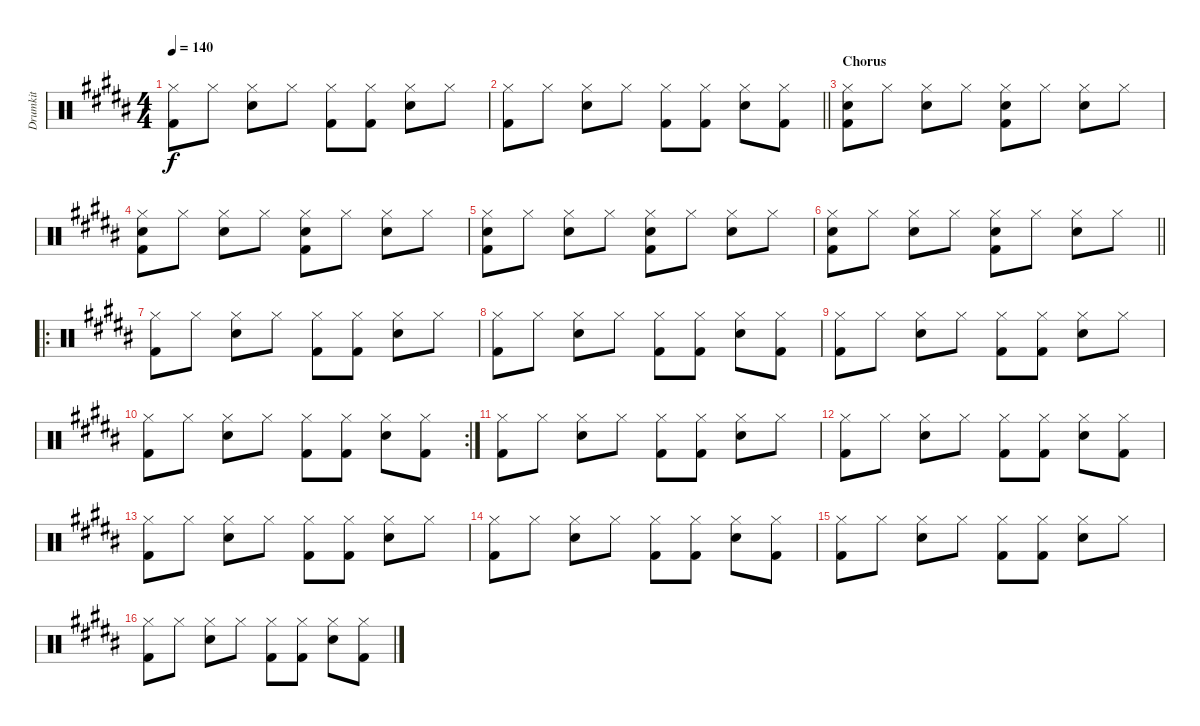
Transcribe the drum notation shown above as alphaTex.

\track ("Drumkit" "Drumkit") {instrument percussion}
\staff {score}
\articulation defaults
\ts (4 4)
\tempo 140
\clef neutral
\ks b
("Hi-Hat (closed)" "Kick (hit) 2").8{dy f} "Hi-Hat (closed)".8 ("Hi-Hat (closed)" "Snare (hit) 2").8 "Hi-Hat (closed)".8 ("Hi-Hat (closed)" "Kick (hit) 2").8 ("Hi-Hat (closed)" "Kick (hit) 2").8 ("Hi-Hat (closed)" "Snare (hit) 2").8 "Hi-Hat (closed)".8 |
\barLineRight lightlight
("Hi-Hat (closed)" "Kick (hit) 2").8 "Hi-Hat (closed)".8 ("Hi-Hat (closed)" "Snare (hit) 2").8 "Hi-Hat (closed)".8 ("Hi-Hat (closed)" "Kick (hit) 2").8 ("Hi-Hat (closed)" "Kick (hit) 2").8 ("Hi-Hat (closed)" "Snare (hit) 2").8 ("Hi-Hat (closed)" "Kick (hit) 2").8 |
\section ("" "Chorus")
("Hi-Hat (closed)" "Snare (hit) 2" "Kick (hit) 2").8 "Hi-Hat (closed)".8 ("Hi-Hat (closed)" "Snare (hit) 2").8 "Hi-Hat (closed)".8 ("Hi-Hat (closed)" "Snare (hit) 2" "Kick (hit) 2").8 "Hi-Hat (closed)".8 ("Hi-Hat (closed)" "Snare (hit) 2").8 "Hi-Hat (closed)".8 |
("Hi-Hat (closed)" "Snare (hit) 2" "Kick (hit) 2").8 "Hi-Hat (closed)".8 ("Hi-Hat (closed)" "Snare (hit) 2").8 "Hi-Hat (closed)".8 ("Hi-Hat (closed)" "Snare (hit) 2" "Kick (hit) 2").8 "Hi-Hat (closed)".8 ("Hi-Hat (closed)" "Snare (hit) 2").8 "Hi-Hat (closed)".8 |
("Hi-Hat (closed)" "Snare (hit) 2" "Kick (hit) 2").8 "Hi-Hat (closed)".8 ("Hi-Hat (closed)" "Snare (hit) 2").8 "Hi-Hat (closed)".8 ("Hi-Hat (closed)" "Snare (hit) 2" "Kick (hit) 2").8 "Hi-Hat (closed)".8 ("Hi-Hat (closed)" "Snare (hit) 2").8 "Hi-Hat (closed)".8 |
\barLineRight lightlight
("Hi-Hat (closed)" "Snare (hit) 2" "Kick (hit) 2").8 "Hi-Hat (closed)".8 ("Hi-Hat (closed)" "Snare (hit) 2").8 "Hi-Hat (closed)".8 ("Hi-Hat (closed)" "Snare (hit) 2" "Kick (hit) 2").8 "Hi-Hat (closed)".8 ("Hi-Hat (closed)" "Snare (hit) 2").8 "Hi-Hat (closed)".8 |
\ro
("Hi-Hat (closed)" "Kick (hit) 2").8 "Hi-Hat (closed)".8 ("Hi-Hat (closed)" "Snare (hit) 2").8 "Hi-Hat (closed)".8 ("Hi-Hat (closed)" "Kick (hit) 2").8 ("Hi-Hat (closed)" "Kick (hit) 2").8 ("Hi-Hat (closed)" "Snare (hit) 2").8 "Hi-Hat (closed)".8 |
("Hi-Hat (closed)" "Kick (hit) 2").8 "Hi-Hat (closed)".8 ("Hi-Hat (closed)" "Snare (hit) 2").8 "Hi-Hat (closed)".8 ("Hi-Hat (closed)" "Kick (hit) 2").8 ("Hi-Hat (closed)" "Kick (hit) 2").8 ("Hi-Hat (closed)" "Snare (hit) 2").8 ("Hi-Hat (closed)" "Kick (hit) 2").8 |
("Hi-Hat (closed)" "Kick (hit) 2").8 "Hi-Hat (closed)".8 ("Hi-Hat (closed)" "Snare (hit) 2").8 "Hi-Hat (closed)".8 ("Hi-Hat (closed)" "Kick (hit) 2").8 ("Hi-Hat (closed)" "Kick (hit) 2").8 ("Hi-Hat (closed)" "Snare (hit) 2").8 "Hi-Hat (closed)".8 |
\rc 2
("Hi-Hat (closed)" "Kick (hit) 2").8 "Hi-Hat (closed)".8 ("Hi-Hat (closed)" "Snare (hit) 2").8 "Hi-Hat (closed)".8 ("Hi-Hat (closed)" "Kick (hit) 2").8 ("Hi-Hat (closed)" "Kick (hit) 2").8 ("Hi-Hat (closed)" "Snare (hit) 2").8 ("Hi-Hat (closed)" "Kick (hit) 2").8 |
("Hi-Hat (closed)" "Kick (hit) 2").8 "Hi-Hat (closed)".8 ("Hi-Hat (closed)" "Snare (hit) 2").8 "Hi-Hat (closed)".8 ("Hi-Hat (closed)" "Kick (hit) 2").8 ("Hi-Hat (closed)" "Kick (hit) 2").8 ("Hi-Hat (closed)" "Snare (hit) 2").8 "Hi-Hat (closed)".8 |
("Hi-Hat (closed)" "Kick (hit) 2").8 "Hi-Hat (closed)".8 ("Hi-Hat (closed)" "Snare (hit) 2").8 "Hi-Hat (closed)".8 ("Hi-Hat (closed)" "Kick (hit) 2").8 ("Hi-Hat (closed)" "Kick (hit) 2").8 ("Hi-Hat (closed)" "Snare (hit) 2").8 ("Hi-Hat (closed)" "Kick (hit) 2").8 |
("Hi-Hat (closed)" "Kick (hit) 2").8 "Hi-Hat (closed)".8 ("Hi-Hat (closed)" "Snare (hit) 2").8 "Hi-Hat (closed)".8 ("Hi-Hat (closed)" "Kick (hit) 2").8 ("Hi-Hat (closed)" "Kick (hit) 2").8 ("Hi-Hat (closed)" "Snare (hit) 2").8 "Hi-Hat (closed)".8 |
("Hi-Hat (closed)" "Kick (hit) 2").8 "Hi-Hat (closed)".8 ("Hi-Hat (closed)" "Snare (hit) 2").8 "Hi-Hat (closed)".8 ("Hi-Hat (closed)" "Kick (hit) 2").8 ("Hi-Hat (closed)" "Kick (hit) 2").8 ("Hi-Hat (closed)" "Snare (hit) 2").8 ("Hi-Hat (closed)" "Kick (hit) 2").8 |
("Hi-Hat (closed)" "Kick (hit) 2").8 "Hi-Hat (closed)".8 ("Hi-Hat (closed)" "Snare (hit) 2").8 "Hi-Hat (closed)".8 ("Hi-Hat (closed)" "Kick (hit) 2").8 ("Hi-Hat (closed)" "Kick (hit) 2").8 ("Hi-Hat (closed)" "Snare (hit) 2").8 "Hi-Hat (closed)".8 |
("Hi-Hat (closed)" "Kick (hit) 2").8 "Hi-Hat (closed)".8 ("Hi-Hat (closed)" "Snare (hit) 2").8 "Hi-Hat (closed)".8 ("Hi-Hat (closed)" "Kick (hit) 2").8 ("Hi-Hat (closed)" "Kick (hit) 2").8 ("Hi-Hat (closed)" "Snare (hit) 2").8 ("Hi-Hat (closed)" "Kick (hit) 2").8
